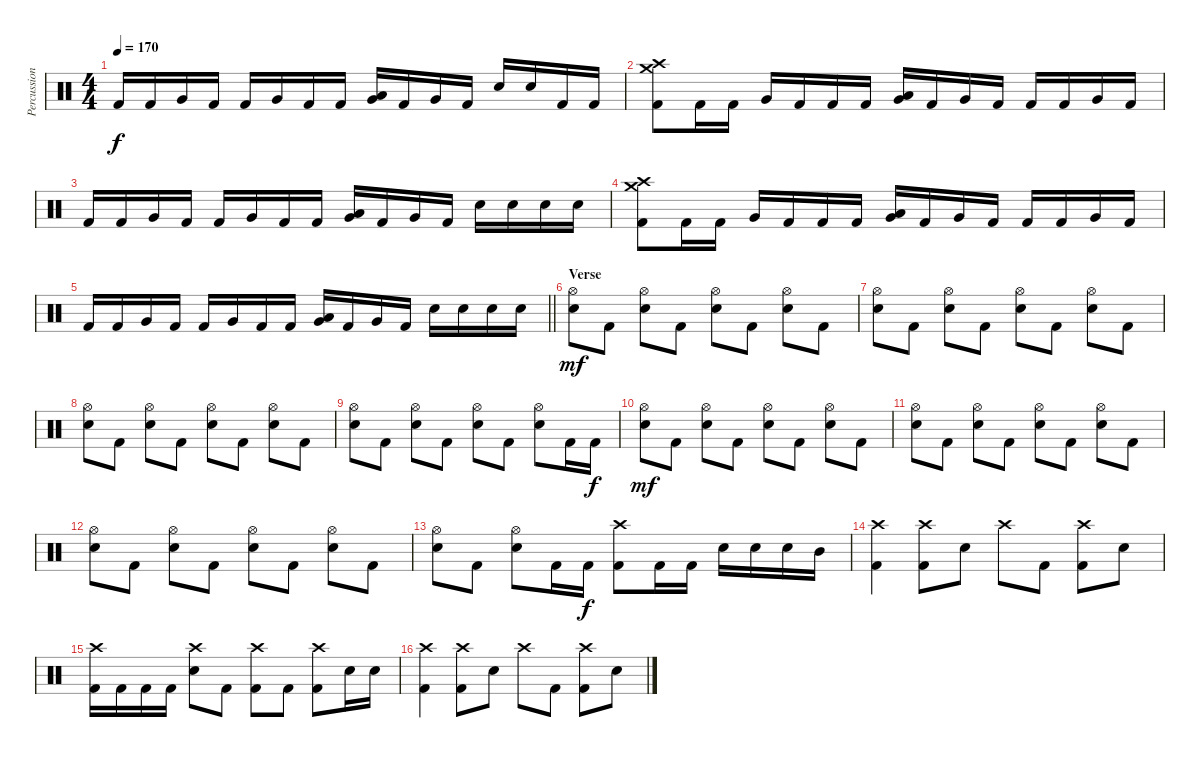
\track ("Percussion" "Percussion") {instrument percussion}
\staff {score}
\articulation defaults
\ts (4 4)
\tempo 170
\clef neutral
\ks c "Kick (hit) 2".16{dy f} "Kick (hit) 2".16 "Very Low Tom (hit)".16 "Kick (hit) 2".16 "Kick (hit) 2".16 "Very Low Tom (hit)".16 "Kick (hit) 2".16 "Kick (hit) 2".16
("Low Tom (hit)" "Very Low Tom (hit)").16 "Kick (hit) 2".16 "Very Low Tom (hit)".16 "Kick (hit) 2".16 "Electric Snare (hit)".16 "Electric Snare (hit)".16 "Kick (hit) 2".16 "Kick (hit) 2".16 |
("Crash high (hit)" "Crash medium (hit)" "Kick (hit) 2").8 "Kick (hit) 2".16 "Kick (hit) 2".16 "Very Low Tom (hit)".16 "Kick (hit) 2".16 "Kick (hit) 2".16 "Kick (hit) 2".16 ("Low Tom (hit)" "Very Low Tom (hit)").16 "Kick (hit) 2".16 "Very Low Tom (hit)".16 "Kick (hit) 2".16 "Kick (hit) 2".16 "Kick (hit) 2".16 "Very Low Tom (hit)".16 "Kick (hit) 2".16 |
"Kick (hit) 2".16 "Kick (hit) 2".16 "Very Low Tom (hit)".16 "Kick (hit) 2".16 "Kick (hit) 2".16 "Very Low Tom (hit)".16 "Kick (hit) 2".16 "Kick (hit) 2".16 ("Low Tom (hit)" "Very Low Tom (hit)").16 "Kick (hit) 2".16 "Very Low Tom (hit)".16 "Kick (hit) 2".16 "Electric Snare (hit)".16 "Electric Snare (hit)".16 "Electric Snare (hit)".16 "Electric Snare (hit)".16 |
("Crash high (hit)" "Crash medium (hit)" "Kick (hit) 2").8 "Kick (hit) 2".16 "Kick (hit) 2".16 "Very Low Tom (hit)".16 "Kick (hit) 2".16 "Kick (hit) 2".16 "Kick (hit) 2".16 ("Low Tom (hit)" "Very Low Tom (hit)").16 "Kick (hit) 2".16 "Very Low Tom (hit)".16 "Kick (hit) 2".16 "Kick (hit) 2".16 "Kick (hit) 2".16 "Very Low Tom (hit)".16 "Kick (hit) 2".16 |
\barLineRight lightlight "Kick (hit) 2".16 "Kick (hit) 2".16 "Very Low Tom (hit)".16 "Kick (hit) 2".16 "Kick (hit) 2".16 "Very Low Tom (hit)".16 "Kick (hit) 2".16 "Kick (hit) 2".16
("Low Tom (hit)" "Very Low Tom (hit)").16 "Kick (hit) 2".16 "Very Low Tom (hit)".16 "Kick (hit) 2".16 "Electric Snare (hit)".16 "Electric Snare (hit)".16 "Electric Snare (hit)".16 "Electric Snare (hit)".16 |
\section ("" "Verse")
("Hi-Hat (open)" "Electric Snare (hit)").8{dy mf} "Kick (hit) 2".8 ("Hi-Hat (open)" "Electric Snare (hit)").8 "Kick (hit) 2".8 ("Hi-Hat (open)" "Electric Snare (hit)").8 "Kick (hit) 2".8 ("Hi-Hat (open)" "Electric Snare (hit)").8 "Kick (hit) 2".8 |
("Hi-Hat (open)" "Electric Snare (hit)").8 "Kick (hit) 2".8 ("Hi-Hat (open)" "Electric Snare (hit)").8 "Kick (hit) 2".8 ("Hi-Hat (open)" "Electric Snare (hit)").8 "Kick (hit) 2".8 ("Hi-Hat (open)" "Electric Snare (hit)").8 "Kick (hit) 2".8 |
("Hi-Hat (open)" "Electric Snare (hit)").8 "Kick (hit) 2".8 ("Hi-Hat (open)" "Electric Snare (hit)").8 "Kick (hit) 2".8 ("Hi-Hat (open)" "Electric Snare (hit)").8 "Kick (hit) 2".8 ("Hi-Hat (open)" "Electric Snare (hit)").8 "Kick (hit) 2".8 |
("Hi-Hat (open)" "Electric Snare (hit)").8 "Kick (hit) 2".8 ("Hi-Hat (open)" "Electric Snare (hit)").8 "Kick (hit) 2".8 ("Hi-Hat (open)" "Electric Snare (hit)").8 "Kick (hit) 2".8 ("Hi-Hat (open)" "Electric Snare (hit)").8 "Kick (hit) 2".16 "Kick (hit) 2".16{dy f} |
("Hi-Hat (open)" "Electric Snare (hit)").8{dy mf} "Kick (hit) 2".8 ("Hi-Hat (open)" "Electric Snare (hit)").8 "Kick (hit) 2".8 ("Hi-Hat (open)" "Electric Snare (hit)").8 "Kick (hit) 2".8 ("Hi-Hat (open)" "Electric Snare (hit)").8 "Kick (hit) 2".8 |
("Hi-Hat (open)" "Electric Snare (hit)").8 "Kick (hit) 2".8 ("Hi-Hat (open)" "Electric Snare (hit)").8 "Kick (hit) 2".8 ("Hi-Hat (open)" "Electric Snare (hit)").8 "Kick (hit) 2".8 ("Hi-Hat (open)" "Electric Snare (hit)").8 "Kick (hit) 2".8 |
("Hi-Hat (open)" "Electric Snare (hit)").8 "Kick (hit) 2".8 ("Hi-Hat (open)" "Electric Snare (hit)").8 "Kick (hit) 2".8 ("Hi-Hat (open)" "Electric Snare (hit)").8 "Kick (hit) 2".8 ("Hi-Hat (open)" "Electric Snare (hit)").8 "Kick (hit) 2".8 |
("Hi-Hat (open)" "Electric Snare (hit)").8 "Kick (hit) 2".8 ("Hi-Hat (open)" "Electric Snare (hit)").8 "Kick (hit) 2".16 "Kick (hit) 2".16{dy f} ("Crash high (hit)" "Kick (hit) 2").8 "Kick (hit) 2".16 "Kick (hit) 2".16 "Electric Snare (hit)".16 "Electric Snare (hit)".16 "Electric Snare (hit)".16 "Mid Tom (hit)".16 |
("Crash high (hit)" "Kick (hit) 2").4 ("Crash high (hit)" "Kick (hit) 2").8 "Electric Snare (hit)".8 "Crash high (hit)".8 "Kick (hit) 2".8 ("Crash high (hit)" "Kick (hit) 2").8 "Electric Snare (hit)".8 |
("Crash high (hit)" "Kick (hit) 2").16 "Kick (hit) 2".16 "Kick (hit) 2".16 "Kick (hit) 2".16 ("Crash high (hit)" "Electric Snare (hit)").8 "Kick (hit) 2".8 ("Crash high (hit)" "Kick (hit) 2").8 "Kick (hit) 2".8 ("Crash high (hit)" "Kick (hit) 2").8 "Electric Snare (hit)".16 "Electric Snare (hit)".16 |
("Crash high (hit)" "Kick (hit) 2").4 ("Crash high (hit)" "Kick (hit) 2").8 "Electric Snare (hit)".8 "Crash high (hit)".8 "Kick (hit) 2".8 ("Crash high (hit)" "Kick (hit) 2").8 "Electric Snare (hit)".8
